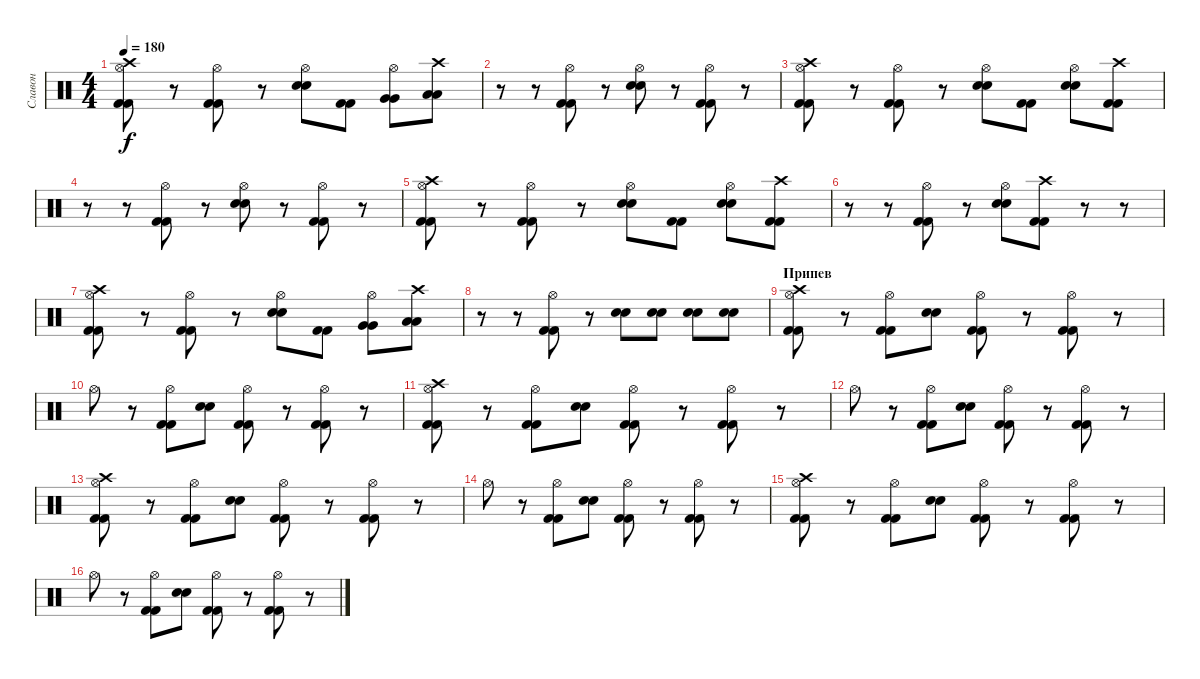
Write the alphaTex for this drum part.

\track ("Славон" "Славон") {instrument percussion}
\staff {score}
\articulation defaults
\ts (4 4)
\tempo 180
\clef neutral
\ks c
("Hi-Hat (open)" "Kick (hit) 2" "Kick (hit) 2" "Crash high (hit)").8{dy f} r.8 ("Hi-Hat (open)" "Kick (hit) 2" "Kick (hit) 2").8 r.8 ("Hi-Hat (open)" "Electric Snare (hit)" "Electric Snare (hit)").8 ("Kick (hit) 2" "Kick (hit) 2").8 ("Hi-Hat (open)" "Very Low Tom (hit)" "Very Low Tom (hit)").8 ("Low Floor Tom (hit)" "Low Floor Tom (hit)" "Crash high (hit)").8 |
r.8 r.8 ("Hi-Hat (open)" "Kick (hit) 2" "Kick (hit) 2").8 r.8 ("Hi-Hat (open)" "Electric Snare (hit)" "Electric Snare (hit)").8 r.8 ("Hi-Hat (open)" "Kick (hit) 2" "Kick (hit) 2").8 r.8 |
("Hi-Hat (open)" "Kick (hit) 2" "Kick (hit) 2" "Crash high (hit)").8 r.8 ("Hi-Hat (open)" "Kick (hit) 2" "Kick (hit) 2").8 r.8 ("Hi-Hat (open)" "Electric Snare (hit)" "Electric Snare (hit)").8 ("Kick (hit) 2" "Kick (hit) 2").8 ("Hi-Hat (open)" "Electric Snare (hit)" "Electric Snare (hit)").8 ("Kick (hit) 2" "Kick (hit) 2" "Crash high (hit)").8 |
r.8 r.8 ("Hi-Hat (open)" "Kick (hit) 2" "Kick (hit) 2").8 r.8 ("Hi-Hat (open)" "Electric Snare (hit)" "Electric Snare (hit)").8 r.8 ("Hi-Hat (open)" "Kick (hit) 2" "Kick (hit) 2").8 r.8 |
("Hi-Hat (open)" "Kick (hit) 2" "Kick (hit) 2" "Crash high (hit)").8 r.8 ("Hi-Hat (open)" "Kick (hit) 2" "Kick (hit) 2").8 r.8 ("Hi-Hat (open)" "Electric Snare (hit)" "Electric Snare (hit)").8 ("Kick (hit) 2" "Kick (hit) 2").8 ("Hi-Hat (open)" "Electric Snare (hit)" "Electric Snare (hit)").8 ("Kick (hit) 2" "Kick (hit) 2" "Crash high (hit)").8 |
r.8 r.8 ("Hi-Hat (open)" "Kick (hit) 2" "Kick (hit) 2").8 r.8 ("Hi-Hat (open)" "Electric Snare (hit)" "Electric Snare (hit)").8 ("Kick (hit) 2" "Kick (hit) 2" "Crash high (hit)").8 r.8 r.8 |
("Hi-Hat (open)" "Kick (hit) 2" "Kick (hit) 2" "Crash high (hit)").8 r.8 ("Hi-Hat (open)" "Kick (hit) 2" "Kick (hit) 2").8 r.8 ("Hi-Hat (open)" "Electric Snare (hit)" "Electric Snare (hit)").8 ("Kick (hit) 2" "Kick (hit) 2").8 ("Hi-Hat (open)" "Very Low Tom (hit)" "Very Low Tom (hit)").8 ("Low Floor Tom (hit)" "Low Floor Tom (hit)" "Crash high (hit)").8 |
r.8 r.8 ("Hi-Hat (open)" "Kick (hit) 2" "Kick (hit) 2").8 r.8 ("Electric Snare (hit)" "Electric Snare (hit)").8 ("Electric Snare (hit)" "Electric Snare (hit)").8 ("Electric Snare (hit)" "Electric Snare (hit)").8 ("Electric Snare (hit)" "Electric Snare (hit)").8 |
\section ("" "Припев")
("Hi-Hat (open)" "Kick (hit) 2" "Kick (hit) 2" "Crash high (hit)").8 r.8 ("Hi-Hat (open)" "Kick (hit) 2" "Kick (hit) 2").8 ("Electric Snare (hit)" "Electric Snare (hit)").8 ("Hi-Hat (open)" "Kick (hit) 2" "Kick (hit) 2").8 r.8 ("Hi-Hat (open)" "Kick (hit) 2" "Kick (hit) 2").8 r.8 |
"Hi-Hat (open)".8 r.8 ("Hi-Hat (open)" "Kick (hit) 2" "Kick (hit) 2").8 ("Electric Snare (hit)" "Electric Snare (hit)").8 ("Hi-Hat (open)" "Kick (hit) 2" "Kick (hit) 2").8 r.8 ("Hi-Hat (open)" "Kick (hit) 2" "Kick (hit) 2").8 r.8 |
("Hi-Hat (open)" "Kick (hit) 2" "Kick (hit) 2" "Crash high (hit)").8 r.8 ("Hi-Hat (open)" "Kick (hit) 2" "Kick (hit) 2").8 ("Electric Snare (hit)" "Electric Snare (hit)").8 ("Hi-Hat (open)" "Kick (hit) 2" "Kick (hit) 2").8 r.8 ("Hi-Hat (open)" "Kick (hit) 2" "Kick (hit) 2").8 r.8 |
"Hi-Hat (open)".8 r.8 ("Hi-Hat (open)" "Kick (hit) 2" "Kick (hit) 2").8 ("Electric Snare (hit)" "Electric Snare (hit)").8 ("Hi-Hat (open)" "Kick (hit) 2" "Kick (hit) 2").8 r.8 ("Hi-Hat (open)" "Kick (hit) 2" "Kick (hit) 2").8 r.8 |
("Hi-Hat (open)" "Kick (hit) 2" "Kick (hit) 2" "Crash high (hit)").8 r.8 ("Hi-Hat (open)" "Kick (hit) 2" "Kick (hit) 2").8 ("Electric Snare (hit)" "Electric Snare (hit)").8 ("Hi-Hat (open)" "Kick (hit) 2" "Kick (hit) 2").8 r.8 ("Hi-Hat (open)" "Kick (hit) 2" "Kick (hit) 2").8 r.8 |
"Hi-Hat (open)".8 r.8 ("Hi-Hat (open)" "Kick (hit) 2" "Kick (hit) 2").8 ("Electric Snare (hit)" "Electric Snare (hit)").8 ("Hi-Hat (open)" "Kick (hit) 2" "Kick (hit) 2").8 r.8 ("Hi-Hat (open)" "Kick (hit) 2" "Kick (hit) 2").8 r.8 |
("Hi-Hat (open)" "Kick (hit) 2" "Kick (hit) 2" "Crash high (hit)").8 r.8 ("Hi-Hat (open)" "Kick (hit) 2" "Kick (hit) 2").8 ("Electric Snare (hit)" "Electric Snare (hit)").8 ("Hi-Hat (open)" "Kick (hit) 2" "Kick (hit) 2").8 r.8 ("Hi-Hat (open)" "Kick (hit) 2" "Kick (hit) 2").8 r.8 |
"Hi-Hat (open)".8 r.8 ("Hi-Hat (open)" "Kick (hit) 2" "Kick (hit) 2").8 ("Electric Snare (hit)" "Electric Snare (hit)").8 ("Hi-Hat (open)" "Kick (hit) 2" "Kick (hit) 2").8 r.8 ("Hi-Hat (open)" "Kick (hit) 2" "Kick (hit) 2").8 r.8
